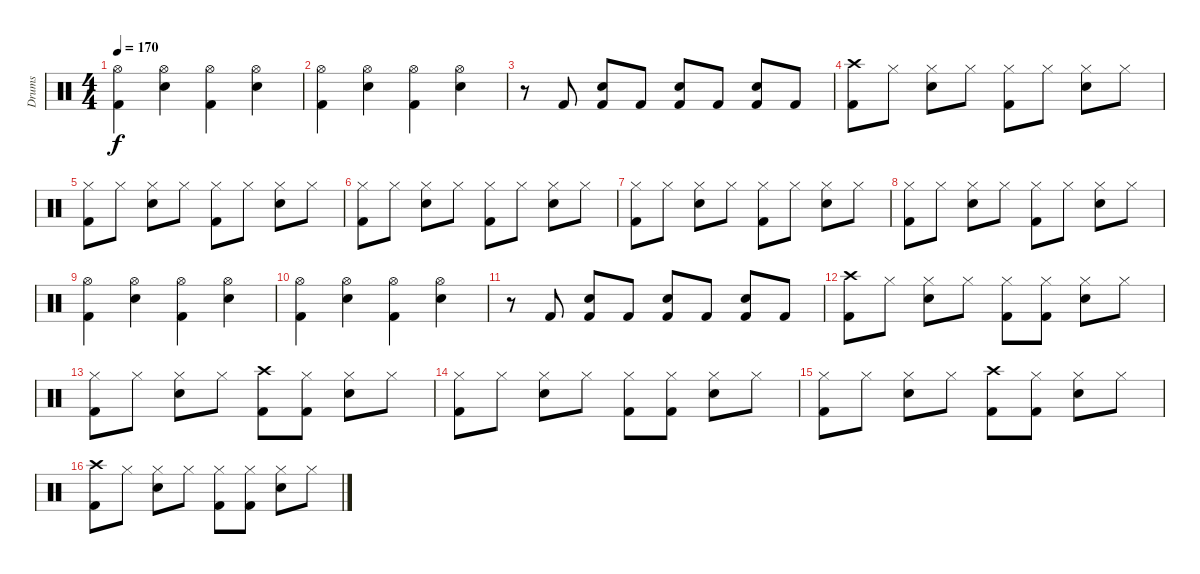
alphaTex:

\track ("Drums" "Drums") {instrument percussion}
\staff {score}
\articulation defaults
\ts (4 4)
\tempo 170
\clef neutral
\ks c
("Hi-Hat (open)" "Kick (hit) 2").4{dy f} ("Hi-Hat (open)" "Snare (hit) 2").4 ("Hi-Hat (open)" "Kick (hit) 2").4 ("Hi-Hat (open)" "Snare (hit) 2").4 |
("Hi-Hat (open)" "Kick (hit) 2").4 ("Hi-Hat (open)" "Snare (hit) 2").4 ("Hi-Hat (open)" "Kick (hit) 2").4 ("Hi-Hat (open)" "Snare (hit) 2").4 |
r.8 "Kick (hit) 2".8 ("Snare (hit) 2" "Kick (hit) 2").8 "Kick (hit) 2".8 ("Snare (hit) 2" "Kick (hit) 2").8 "Kick (hit) 2".8 ("Snare (hit) 2" "Kick (hit) 2").8 "Kick (hit) 2".8 |
("Crash high (hit)" "Kick (hit) 2").8 "Hi-Hat (closed)".8 ("Hi-Hat (closed)" "Snare (hit) 2").8 "Hi-Hat (closed)".8 ("Hi-Hat (closed)" "Kick (hit) 2").8 "Hi-Hat (closed)".8 ("Hi-Hat (closed)" "Snare (hit) 2").8 "Hi-Hat (closed)".8 |
("Hi-Hat (closed)" "Kick (hit) 2").8 "Hi-Hat (closed)".8 ("Hi-Hat (closed)" "Snare (hit) 2").8 "Hi-Hat (closed)".8 ("Hi-Hat (closed)" "Kick (hit) 2").8 "Hi-Hat (closed)".8 ("Hi-Hat (closed)" "Snare (hit) 2").8 "Hi-Hat (closed)".8 |
("Hi-Hat (closed)" "Kick (hit) 2").8 "Hi-Hat (closed)".8 ("Hi-Hat (closed)" "Snare (hit) 2").8 "Hi-Hat (closed)".8 ("Hi-Hat (closed)" "Kick (hit) 2").8 "Hi-Hat (closed)".8 ("Hi-Hat (closed)" "Snare (hit) 2").8 "Hi-Hat (closed)".8 |
("Hi-Hat (closed)" "Kick (hit) 2").8 "Hi-Hat (closed)".8 ("Hi-Hat (closed)" "Snare (hit) 2").8 "Hi-Hat (closed)".8 ("Hi-Hat (closed)" "Kick (hit) 2").8 "Hi-Hat (closed)".8 ("Hi-Hat (closed)" "Snare (hit) 2").8 "Hi-Hat (closed)".8 |
("Hi-Hat (closed)" "Kick (hit) 2").8 "Hi-Hat (closed)".8 ("Hi-Hat (closed)" "Snare (hit) 2").8 "Hi-Hat (closed)".8 ("Hi-Hat (closed)" "Kick (hit) 2").8 "Hi-Hat (closed)".8 ("Hi-Hat (closed)" "Snare (hit) 2").8 "Hi-Hat (closed)".8 |
("Hi-Hat (open)" "Kick (hit) 2").4 ("Hi-Hat (open)" "Snare (hit) 2").4 ("Hi-Hat (open)" "Kick (hit) 2").4 ("Hi-Hat (open)" "Snare (hit) 2").4 |
("Hi-Hat (open)" "Kick (hit) 2").4 ("Hi-Hat (open)" "Snare (hit) 2").4 ("Hi-Hat (open)" "Kick (hit) 2").4 ("Hi-Hat (open)" "Snare (hit) 2").4 |
r.8 "Kick (hit) 2".8 ("Snare (hit) 2" "Kick (hit) 2").8 "Kick (hit) 2".8 ("Snare (hit) 2" "Kick (hit) 2").8 "Kick (hit) 2".8 ("Snare (hit) 2" "Kick (hit) 2").8 "Kick (hit) 2".8 |
("Crash high (hit)" "Kick (hit) 2").8 "Hi-Hat (closed)".8 ("Hi-Hat (closed)" "Snare (hit) 2").8 "Hi-Hat (closed)".8 ("Hi-Hat (closed)" "Kick (hit) 2").8 ("Hi-Hat (closed)" "Kick (hit) 2").8 ("Hi-Hat (closed)" "Snare (hit) 2").8 "Hi-Hat (closed)".8 |
("Hi-Hat (closed)" "Kick (hit) 2").8 "Hi-Hat (closed)".8 ("Hi-Hat (closed)" "Snare (hit) 2").8 "Hi-Hat (closed)".8 ("Crash high (hit)" "Kick (hit) 2").8 ("Hi-Hat (closed)" "Kick (hit) 2").8 ("Hi-Hat (closed)" "Snare (hit) 2").8 "Hi-Hat (closed)".8 |
("Hi-Hat (closed)" "Kick (hit) 2").8 "Hi-Hat (closed)".8 ("Hi-Hat (closed)" "Snare (hit) 2").8 "Hi-Hat (closed)".8 ("Hi-Hat (closed)" "Kick (hit) 2").8 ("Hi-Hat (closed)" "Kick (hit) 2").8 ("Hi-Hat (closed)" "Snare (hit) 2").8 "Hi-Hat (closed)".8 |
("Hi-Hat (closed)" "Kick (hit) 2").8 "Hi-Hat (closed)".8 ("Hi-Hat (closed)" "Snare (hit) 2").8 "Hi-Hat (closed)".8 ("Crash high (hit)" "Kick (hit) 2").8 ("Hi-Hat (closed)" "Kick (hit) 2").8 ("Hi-Hat (closed)" "Snare (hit) 2").8 "Hi-Hat (closed)".8 |
("Crash high (hit)" "Kick (hit) 2").8 "Hi-Hat (closed)".8 ("Hi-Hat (closed)" "Snare (hit) 2").8 "Hi-Hat (closed)".8 ("Hi-Hat (closed)" "Kick (hit) 2").8 ("Hi-Hat (closed)" "Kick (hit) 2").8 ("Hi-Hat (closed)" "Snare (hit) 2").8 "Hi-Hat (closed)".8
